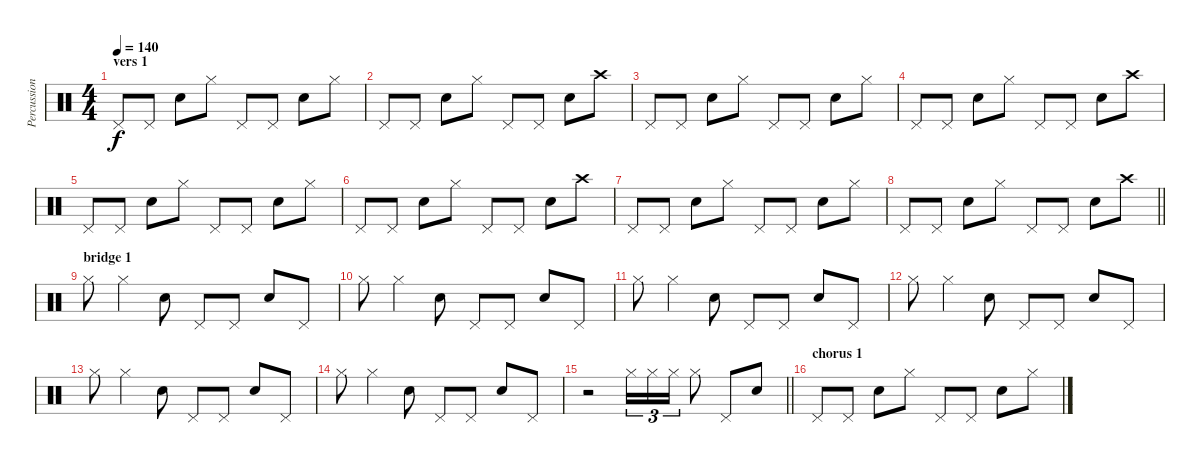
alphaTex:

\track ("Percussion" "Percussion") {instrument percussion}
\staff {score}
\articulation defaults
\ts (4 4)
\section ("" "vers 1")
\tempo 140
\clef neutral
\ks c "Pedal Hi-Hat (hit)".8{dy f} "Pedal Hi-Hat (hit)".8 "Snare (hit) 2".8 "Hi-Hat (closed)".8 "Pedal Hi-Hat (hit)".8 "Pedal Hi-Hat (hit)".8 "Snare (hit) 2".8 "Hi-Hat (closed)".8
|
"Pedal Hi-Hat (hit)".8 "Pedal Hi-Hat (hit)".8 "Snare (hit) 2".8 "Hi-Hat (closed)".8 "Pedal Hi-Hat (hit)".8 "Pedal Hi-Hat (hit)".8 "Snare (hit) 2".8 "Crash high (hit)".8 |
"Pedal Hi-Hat (hit)".8 "Pedal Hi-Hat (hit)".8 "Snare (hit) 2".8 "Hi-Hat (closed)".8 "Pedal Hi-Hat (hit)".8 "Pedal Hi-Hat (hit)".8 "Snare (hit) 2".8 "Hi-Hat (closed)".8 |
"Pedal Hi-Hat (hit)".8 "Pedal Hi-Hat (hit)".8 "Snare (hit) 2".8 "Hi-Hat (closed)".8 "Pedal Hi-Hat (hit)".8 "Pedal Hi-Hat (hit)".8 "Snare (hit) 2".8 "Crash high (hit)".8 |
"Pedal Hi-Hat (hit)".8 "Pedal Hi-Hat (hit)".8 "Snare (hit) 2".8 "Hi-Hat (closed)".8 "Pedal Hi-Hat (hit)".8 "Pedal Hi-Hat (hit)".8 "Snare (hit) 2".8 "Hi-Hat (closed)".8 |
"Pedal Hi-Hat (hit)".8 "Pedal Hi-Hat (hit)".8 "Snare (hit) 2".8 "Hi-Hat (closed)".8 "Pedal Hi-Hat (hit)".8 "Pedal Hi-Hat (hit)".8 "Snare (hit) 2".8 "Crash high (hit)".8 |
"Pedal Hi-Hat (hit)".8 "Pedal Hi-Hat (hit)".8 "Snare (hit) 2".8 "Hi-Hat (closed)".8 "Pedal Hi-Hat (hit)".8 "Pedal Hi-Hat (hit)".8 "Snare (hit) 2".8 "Hi-Hat (closed)".8 |
\barLineRight lightlight "Pedal Hi-Hat (hit)".8 "Pedal Hi-Hat (hit)".8 "Snare (hit) 2".8 "Hi-Hat (closed)".8 "Pedal Hi-Hat (hit)".8 "Pedal Hi-Hat (hit)".8 "Snare (hit) 2".8 "Crash high (hit)".8
|
\section ("" "bridge 1")
"Hi-Hat (closed)".8 "Hi-Hat (closed)".4 "Snare (hit) 2".8 "Pedal Hi-Hat (hit)".8 "Pedal Hi-Hat (hit)".8 "Snare (hit) 2".8 "Pedal Hi-Hat (hit)".8 |
"Hi-Hat (closed)".8 "Hi-Hat (closed)".4 "Snare (hit) 2".8 "Pedal Hi-Hat (hit)".8 "Pedal Hi-Hat (hit)".8 "Snare (hit) 2".8 "Pedal Hi-Hat (hit)".8 |
"Hi-Hat (closed)".8 "Hi-Hat (closed)".4 "Snare (hit) 2".8 "Pedal Hi-Hat (hit)".8 "Pedal Hi-Hat (hit)".8 "Snare (hit) 2".8 "Pedal Hi-Hat (hit)".8 |
"Hi-Hat (closed)".8 "Hi-Hat (closed)".4 "Snare (hit) 2".8 "Pedal Hi-Hat (hit)".8 "Pedal Hi-Hat (hit)".8 "Snare (hit) 2".8 "Pedal Hi-Hat (hit)".8 |
"Hi-Hat (closed)".8 "Hi-Hat (closed)".4 "Snare (hit) 2".8 "Pedal Hi-Hat (hit)".8 "Pedal Hi-Hat (hit)".8 "Snare (hit) 2".8 "Pedal Hi-Hat (hit)".8 |
"Hi-Hat (closed)".8 "Hi-Hat (closed)".4 "Snare (hit) 2".8 "Pedal Hi-Hat (hit)".8 "Pedal Hi-Hat (hit)".8 "Snare (hit) 2".8 "Pedal Hi-Hat (hit)".8 |
\barLineRight lightlight
r.2 "Hi-Hat (closed)".16{tu (3 2)} "Hi-Hat (closed)".16{tu (3 2)} "Hi-Hat (closed)".16{tu (3 2)} "Hi-Hat (closed)".8 "Pedal Hi-Hat (hit)".8 "Snare (hit) 2".8 |
\section ("" "chorus 1")
"Pedal Hi-Hat (hit)".8 "Pedal Hi-Hat (hit)".8 "Snare (hit) 2".8 "Hi-Hat (closed)".8 "Pedal Hi-Hat (hit)".8 "Pedal Hi-Hat (hit)".8 "Snare (hit) 2".8 "Hi-Hat (closed)".8
